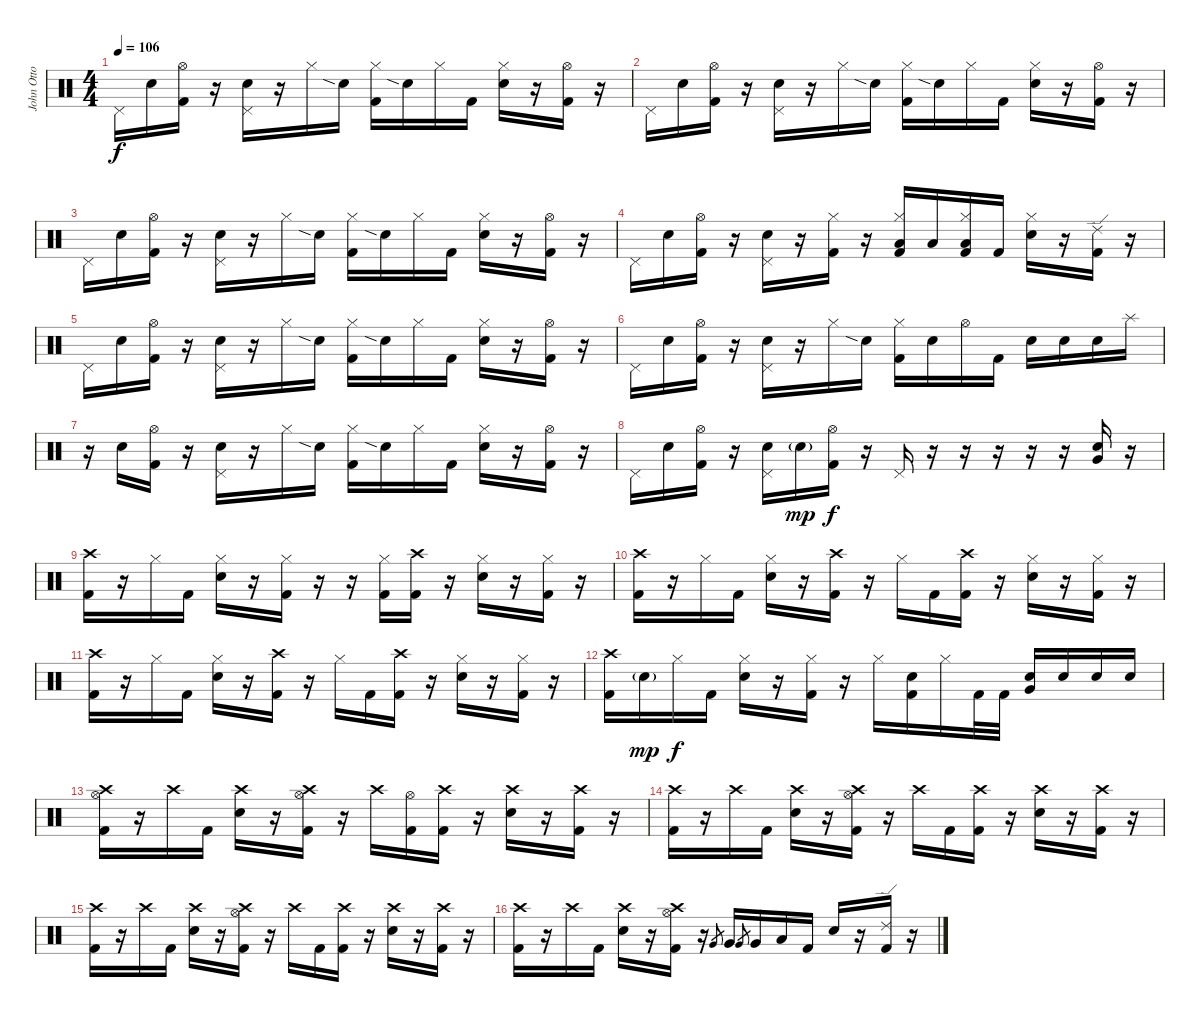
\track ("John Otto - Drums" "John Otto ") {instrument percussion}
\staff {score}
\articulation defaults
\ts (4 4)
\tempo 106
\clef neutral
\ks c "Pedal Hi-Hat (hit)".16{dy f} "Snare (hit) 2".16
("Hi-Hat (open)" "Kick (hit) 2").16 r.16 ("Snare (hit) 2" "Pedal Hi-Hat (hit)").16 r.16 "Hi-Hat (closed)".16 "Snare (hit) 2"{sia}.16 ("Hi-Hat (closed)" "Kick (hit) 2").16 "Snare (hit) 2"{sia}.16 "Hi-Hat (closed)".16 "Kick (hit) 2".16 ("Hi-Hat (closed)" "Snare (hit) 2").16 r.16 ("Hi-Hat (open)" "Kick (hit) 2").16 r.16 |
"Pedal Hi-Hat (hit)".16 "Snare (hit) 2".16 ("Hi-Hat (open)" "Kick (hit) 2").16 r.16 ("Snare (hit) 2" "Pedal Hi-Hat (hit)").16 r.16 "Hi-Hat (closed)".16 "Snare (hit) 2"{sia}.16 ("Hi-Hat (closed)" "Kick (hit) 2").16 "Snare (hit) 2"{sia}.16 "Hi-Hat (closed)".16 "Kick (hit) 2".16 ("Hi-Hat (closed)" "Snare (hit) 2").16 r.16 ("Hi-Hat (open)" "Kick (hit) 2").16 r.16 |
"Pedal Hi-Hat (hit)".16 "Snare (hit) 2".16 ("Hi-Hat (open)" "Kick (hit) 2").16 r.16 ("Snare (hit) 2" "Pedal Hi-Hat (hit)").16 r.16 "Hi-Hat (closed)".16 "Snare (hit) 2"{sia}.16 ("Hi-Hat (closed)" "Kick (hit) 2").16 "Snare (hit) 2"{sia}.16 "Hi-Hat (closed)".16 "Kick (hit) 2".16 ("Hi-Hat (closed)" "Snare (hit) 2").16 r.16 ("Hi-Hat (open)" "Kick (hit) 2").16 r.16 |
"Pedal Hi-Hat (hit)".16 "Snare (hit) 2".16 ("Hi-Hat (open)" "Kick (hit) 2").16 r.16 ("Snare (hit) 2" "Pedal Hi-Hat (hit)").16 r.16 ("Hi-Hat (closed)" "Kick (hit) 2").16 r.16 ("Hi-Hat (closed)" "Low Floor Tom (hit)" "Kick (hit) 2").16 "Low Tom (hit)".16 ("Hi-Hat (closed)" "Low Floor Tom (hit)" "Kick (hit) 2").16 "Kick (hit) 2".16 ("Hi-Hat (closed)" "Snare (hit) 2").16 r.16 ("Ride (edge) 2" "Kick (hit) 2").16 r.16 |
"Pedal Hi-Hat (hit)".16 "Snare (hit) 2".16 ("Hi-Hat (open)" "Kick (hit) 2").16 r.16 ("Snare (hit) 2" "Pedal Hi-Hat (hit)").16 r.16 "Hi-Hat (closed)".16 "Snare (hit) 2"{sia}.16 ("Hi-Hat (closed)" "Kick (hit) 2").16 "Snare (hit) 2"{sia}.16 "Hi-Hat (closed)".16 "Kick (hit) 2".16 ("Hi-Hat (closed)" "Snare (hit) 2").16 r.16 ("Hi-Hat (open)" "Kick (hit) 2").16 r.16 |
"Pedal Hi-Hat (hit)".16 "Snare (hit) 2".16 ("Hi-Hat (open)" "Kick (hit) 2").16 r.16 ("Snare (hit) 2" "Pedal Hi-Hat (hit)").16 r.16 "Hi-Hat (closed)".16 "Snare (hit) 2"{sia}.16 ("Hi-Hat (closed)" "Kick (hit) 2").16 "Snare (hit) 2".16 "Hi-Hat (open)".16 "Kick (hit) 2".16 "Snare (hit) 2".16 "Snare (hit) 2".16 "Snare (hit) 2".16 "Splash (hit)".16 |
r.16 "Snare (hit) 2".16 ("Hi-Hat (open)" "Kick (hit) 2").16 r.16 ("Snare (hit) 2" "Pedal Hi-Hat (hit)").16 r.16 "Hi-Hat (closed)".16 "Snare (hit) 2"{sia}.16 ("Hi-Hat (closed)" "Kick (hit) 2").16 "Snare (hit) 2"{sia}.16 "Hi-Hat (closed)".16 "Kick (hit) 2".16 ("Hi-Hat (closed)" "Snare (hit) 2").16 r.16 ("Hi-Hat (open)" "Kick (hit) 2").16 r.16 |
"Pedal Hi-Hat (hit)".16 "Snare (hit) 2".16 ("Hi-Hat (open)" "Kick (hit) 2").16 r.16 ("Snare (hit) 2" "Pedal Hi-Hat (hit)").16 "Snare (hit) 2"{g}.16{dy mp} ("Hi-Hat (open)" "Kick (hit) 2").16{dy f} r.16 "Pedal Hi-Hat (hit)".16 r.16 r.16 r.16 r.16 r.16 ("Very Low Tom (hit)" "Snare (hit) 2").16 r.16 |
("Crash high (hit)" "Kick (hit) 2").16 r.16 "Hi-Hat (closed)".16 "Kick (hit) 2".16 ("Hi-Hat (closed)" "Snare (hit) 2").16 r.16 ("Hi-Hat (closed)" "Kick (hit) 2").16 r.16 r.16 ("Hi-Hat (closed)" "Kick (hit) 2").16 ("Crash high (hit)" "Kick (hit) 2").16 r.16 ("Hi-Hat (closed)" "Snare (hit) 2").16 r.16 ("Hi-Hat (closed)" "Kick (hit) 2").16 r.16 |
("Crash high (hit)" "Kick (hit) 2").16 r.16 "Hi-Hat (closed)".16 "Kick (hit) 2".16 ("Hi-Hat (closed)" "Snare (hit) 2").16 r.16 ("Crash high (hit)" "Kick (hit) 2").16 r.16 "Hi-Hat (closed)".16 "Kick (hit) 2".16 ("Crash high (hit)" "Kick (hit) 2").16 r.16 ("Hi-Hat (closed)" "Snare (hit) 2").16 r.16 ("Hi-Hat (closed)" "Kick (hit) 2").16 r.16 |
("Crash high (hit)" "Kick (hit) 2").16 r.16 "Hi-Hat (closed)".16 "Kick (hit) 2".16 ("Hi-Hat (closed)" "Snare (hit) 2").16 r.16 ("Crash high (hit)" "Kick (hit) 2").16 r.16 "Hi-Hat (closed)".16 "Kick (hit) 2".16 ("Crash high (hit)" "Kick (hit) 2").16 r.16 ("Hi-Hat (closed)" "Snare (hit) 2").16 r.16 ("Hi-Hat (closed)" "Kick (hit) 2").16 r.16 |
("Crash high (hit)" "Kick (hit) 2").16 "Snare (hit) 2"{g}.16{dy mp} "Hi-Hat (closed)".16{dy f} "Kick (hit) 2".16 ("Hi-Hat (closed)" "Snare (hit) 2").16 r.16 ("Hi-Hat (closed)" "Kick (hit) 2").16 r.16 "Hi-Hat (closed)".16 ("Snare (hit) 2" "Kick (hit) 2").16 "Hi-Hat (closed)".16 "Kick (hit) 2".32 "Kick (hit) 2".32 ("Very Low Tom (hit)" "Snare (hit) 2").16 "Snare (hit) 2".16 "Snare (hit) 2".16 "Snare (hit) 2".16 |
("Crash high (hit)" "Hi-Hat (open)" "Kick (hit) 2").16 r.16 "Crash high (hit)".16 "Kick (hit) 2".16 ("Crash high (hit)" "Snare (hit) 2").16 r.16 ("Crash high (hit)" "Hi-Hat (open)" "Kick (hit) 2").16 r.16 "Crash high (hit)".16 ("Hi-Hat (open)" "Kick (hit) 2").16 ("Crash high (hit)" "Kick (hit) 2").16 r.16 ("Crash high (hit)" "Snare (hit) 2").16 r.16 ("Crash high (hit)" "Kick (hit) 2").16 r.16 |
("Crash high (hit)" "Kick (hit) 2").16 r.16 "Crash high (hit)".16 "Kick (hit) 2".16 ("Crash high (hit)" "Snare (hit) 2").16 r.16 ("Crash high (hit)" "Hi-Hat (open)" "Kick (hit) 2").16 r.16 "Crash high (hit)".16 "Kick (hit) 2".16 ("Crash high (hit)" "Kick (hit) 2").16 r.16 ("Crash high (hit)" "Snare (hit) 2").16 r.16 ("Crash high (hit)" "Kick (hit) 2").16 r.16 |
("Crash high (hit)" "Kick (hit) 2").16 r.16 "Crash high (hit)".16 "Kick (hit) 2".16 ("Crash high (hit)" "Snare (hit) 2").16 r.16 ("Crash high (hit)" "Hi-Hat (open)" "Kick (hit) 2").16 r.16 "Crash high (hit)".16 "Kick (hit) 2".16 ("Crash high (hit)" "Kick (hit) 2").16 r.16 ("Crash high (hit)" "Snare (hit) 2").16 r.16 ("Crash high (hit)" "Kick (hit) 2").16 r.16 |
("Crash high (hit)" "Kick (hit) 2").16 r.16 "Crash high (hit)".16 "Kick (hit) 2".16 ("Crash high (hit)" "Snare (hit) 2").16 r.16 ("Crash high (hit)" "Hi-Hat (open)" "Kick (hit) 2").16 r.16 "Very Low Tom (hit)".8{gr} "Very Low Tom (hit)".16 "Very Low Tom (hit)".8{gr} "Very Low Tom (hit)".16 "Low Tom (hit)".16 "Kick (hit) 2".16 "Snare (hit) 2".16 r.16 ("Ride (edge) 2" "Kick (hit) 2").16 r.16
